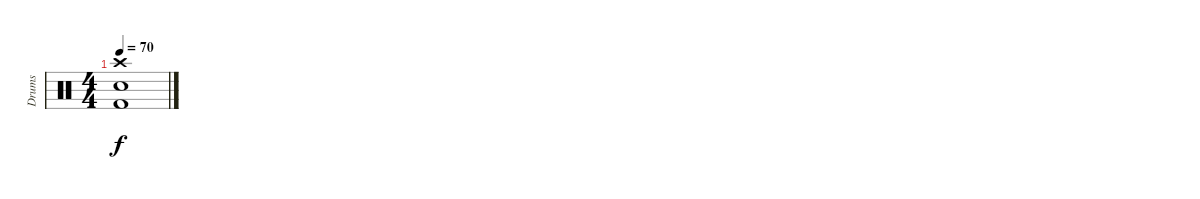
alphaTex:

\track ("Drums" "Drums") {instrument percussion}
\staff {score}
\articulation defaults
\ts (4 4)
\tempo 70
\clef neutral
\ks c
("Crash high (hit)" "Kick (hit) 2" "Electric Snare (hit)").1{dy f}
